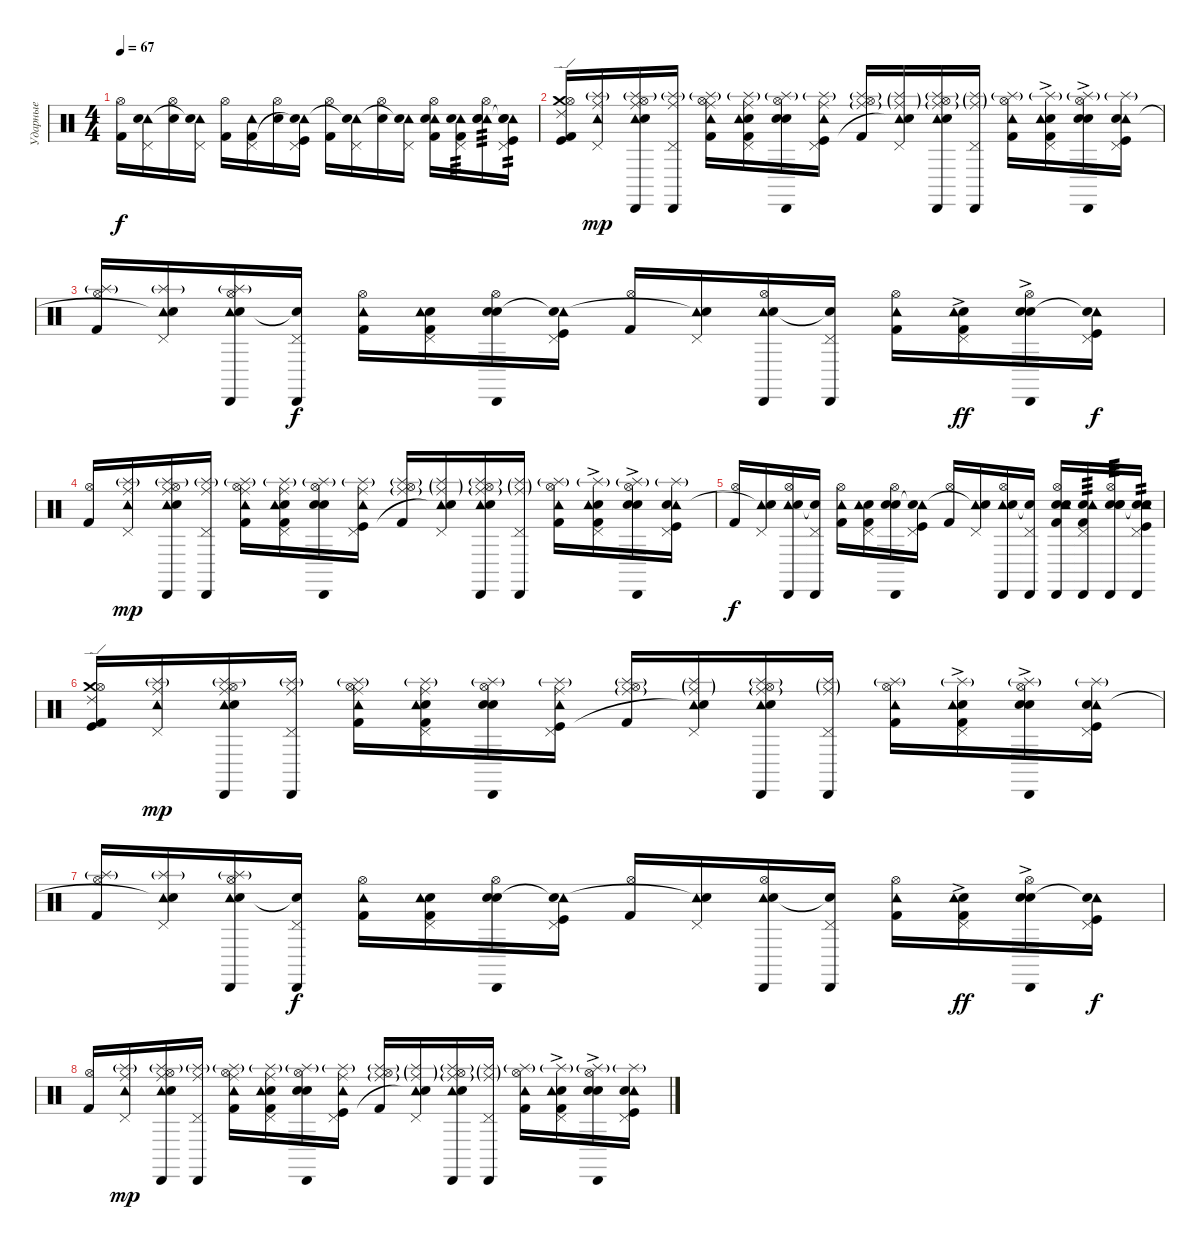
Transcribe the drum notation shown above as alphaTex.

\track ("Ударные" "Ударные") {instrument percussion}
\staff {score}
\articulation defaults
\ts (4 4)
\tempo 67
\clef neutral
\ks c
("Hi-Hat (open)" "Kick (hit) 2").16{dy f} ("Pedal Hi-Hat (hit)" "Tambourine (hit)" "Snare (hit)"{t}).16 ("Hi-Hat (open)" "Electric Snare (hit)").16 ("Pedal Hi-Hat (hit)" "Tambourine (hit)" "Snare (hit) 2"{t}).16 ("Hi-Hat (open)" "Kick (hit) 2").16 ("Pedal Hi-Hat (hit)" "Tambourine (hit)" "Kick (hit) 2").16 ("Hi-Hat (open)" "Snare (hit) 2").16 ("Pedal Hi-Hat (hit)" "Tambourine (hit)" "Snare (hit) 2"{t} "Kick (hit)").16 ("Hi-Hat (open)" "Kick (hit) 2").16 ("Pedal Hi-Hat (hit)" "Tambourine (hit)" "Snare (hit)"{t}).16 ("Hi-Hat (open)" "Electric Snare (hit)").16 ("Pedal Hi-Hat (hit)" "Tambourine (hit)" "Snare (hit) 2"{t}).16 ("Hi-Hat (open)" "Tambourine (hit)" "Snare (hit) 2" "Kick (hit) 2").16 ("Pedal Hi-Hat (hit)" "Tambourine (hit)" "Snare (hit) 2" "Kick (hit) 2").16{tp 3} ("Hi-Hat (open)" "Tambourine (hit)" "Snare (hit) 2" "Electric Snare (hit)").16{tp 3} ("Pedal Hi-Hat (hit)" "Tambourine (hit)" "Snare (hit) 2" "Snare (hit) 2"{t} "Kick (hit)").16{tp 2} |
("Crash medium (hit)" "Kick (hit) 2" "Kick (hit)" "Ride (edge) 2" "Hi-Hat (open)").16 ("Pedal Hi-Hat (hit)" "Tambourine (hit)" "Splash (hit)"{g} "Ride (middle)").16{dy mp} ("Hi-Hat (open)" "Cabasa (hit)" "Tambourine (hit)" "Splash (hit)"{g} "Snare (hit) 2" "Ride (middle)").16 ("Pedal Hi-Hat (hit)" "Cabasa (hit)" "Splash (hit)"{g} "Ride (middle)").16 ("Hi-Hat (open)" "Tambourine (hit)" "Splash (hit)"{g} "Ride (middle)" "Kick (hit) 2").16 ("Pedal Hi-Hat (hit)" "Ride (middle)" "Hand Clap (hit)" "Tambourine (hit)" "Splash (hit)"{g} "Kick (hit) 2").16 ("Hi-Hat (open)" "Cabasa (hit)" "Hand Clap (hit)" "Splash (hit)"{g} "Electric Snare (hit)").16 ("Pedal Hi-Hat (hit)" "Ride (middle)" "Tambourine (hit)" "Splash (hit)"{g} "Kick (hit)").16 ("Hi-Hat (open)" "Ride (middle)"{g} "Splash (hit)"{g} "Kick (hit) 2").16 ("Pedal Hi-Hat (hit)" "Ride (middle)"{g} "Tambourine (hit)" "Splash (hit)"{g} "Snare (hit)"{t}).16 ("Hi-Hat (open)" "Cabasa (hit)" "Splash (hit)"{g} "Tambourine (hit)" "Snare (hit) 2" "Ride (middle)"{g}).16 ("Pedal Hi-Hat (hit)" "Cabasa (hit)" "Splash (hit)"{g} "Ride (middle)"{g}).16 ("Hi-Hat (open)" "Tambourine (hit)" "Splash (hit)"{g} "Kick (hit) 2").16 ("Pedal Hi-Hat (hit)" "Hand Clap (hit)"{ac} "Tambourine (hit)" "Splash (hit)"{g} "Kick (hit) 2").16 ("Hi-Hat (open)" "Cabasa (hit)" "Hand Clap (hit)"{ac} "Splash (hit)"{g} "Electric Snare (hit)").16 ("Pedal Hi-Hat (hit)" "Splash (hit)"{g} "Tambourine (hit)" "Electric Snare (hit)" "Kick (hit)").16 |
("Hi-Hat (open)" "Splash (hit)"{g} "Kick (hit) 2").16 ("Pedal Hi-Hat (hit)" "Tambourine (hit)" "Splash (hit)"{g} "Snare (hit)"{t}).16 ("Hi-Hat (open)" "Cabasa (hit)" "Tambourine (hit)" "Snare (hit) 2" "Splash (hit)"{g}).16 ("Pedal Hi-Hat (hit)" "Cabasa (hit)" "Snare (hit) 2"{t}).16{dy f} ("Hi-Hat (open)" "Tambourine (hit)" "Kick (hit) 2").16 ("Pedal Hi-Hat (hit)" "Hand Clap (hit)" "Tambourine (hit)" "Kick (hit) 2").16 ("Hi-Hat (open)" "Cabasa (hit)" "Hand Clap (hit)" "Electric Snare (hit)").16 ("Pedal Hi-Hat (hit)" "Tambourine (hit)" "Snare (hit) 2"{t} "Kick (hit)").16 ("Hi-Hat (open)" "Kick (hit) 2").16 ("Pedal Hi-Hat (hit)" "Tambourine (hit)" "Snare (hit)"{t}).16 ("Hi-Hat (open)" "Cabasa (hit)" "Tambourine (hit)" "Snare (hit) 2").16 ("Pedal Hi-Hat (hit)" "Cabasa (hit)" "Snare (hit) 2"{t}).16 ("Hi-Hat (open)" "Tambourine (hit)" "Kick (hit) 2").16 ("Pedal Hi-Hat (hit)" "Hand Clap (hit)"{ac} "Tambourine (hit)" "Kick (hit) 2").16{dy ff} ("Hi-Hat (open)" "Cabasa (hit)" "Hand Clap (hit)"{ac} "Electric Snare (hit)").16 ("Pedal Hi-Hat (hit)" "Tambourine (hit)" "Snare (hit) 2"{t} "Kick (hit)").16{dy f} |
("Hi-Hat (open)" "Kick (hit) 2").16 ("Pedal Hi-Hat (hit)" "Tambourine (hit)" "Splash (hit)"{g} "Ride (middle)").16{dy mp} ("Hi-Hat (open)" "Cabasa (hit)" "Tambourine (hit)" "Splash (hit)"{g} "Snare (hit) 2" "Ride (middle)").16 ("Pedal Hi-Hat (hit)" "Cabasa (hit)" "Splash (hit)"{g} "Ride (middle)").16 ("Hi-Hat (open)" "Tambourine (hit)" "Splash (hit)"{g} "Ride (middle)" "Kick (hit) 2").16 ("Pedal Hi-Hat (hit)" "Ride (middle)" "Hand Clap (hit)" "Tambourine (hit)" "Splash (hit)"{g} "Kick (hit) 2").16 ("Hi-Hat (open)" "Cabasa (hit)" "Hand Clap (hit)" "Splash (hit)"{g} "Electric Snare (hit)").16 ("Pedal Hi-Hat (hit)" "Ride (middle)" "Tambourine (hit)" "Splash (hit)"{g} "Kick (hit)").16 ("Hi-Hat (open)" "Ride (middle)"{g} "Splash (hit)"{g} "Kick (hit) 2").16 ("Pedal Hi-Hat (hit)" "Ride (middle)"{g} "Tambourine (hit)" "Splash (hit)"{g} "Snare (hit)"{t}).16 ("Hi-Hat (open)" "Cabasa (hit)" "Splash (hit)"{g} "Tambourine (hit)" "Snare (hit) 2" "Ride (middle)"{g}).16 ("Pedal Hi-Hat (hit)" "Cabasa (hit)" "Splash (hit)"{g} "Ride (middle)"{g}).16 ("Hi-Hat (open)" "Tambourine (hit)" "Splash (hit)"{g} "Kick (hit) 2").16 ("Pedal Hi-Hat (hit)" "Hand Clap (hit)"{ac} "Tambourine (hit)" "Splash (hit)"{g} "Kick (hit) 2").16 ("Hi-Hat (open)" "Cabasa (hit)" "Hand Clap (hit)"{ac} "Splash (hit)"{g} "Electric Snare (hit)").16 ("Pedal Hi-Hat (hit)" "Splash (hit)"{g} "Tambourine (hit)" "Electric Snare (hit)" "Kick (hit)").16 |
("Hi-Hat (open)" "Kick (hit) 2").16{dy f} ("Pedal Hi-Hat (hit)" "Tambourine (hit)" "Snare (hit)"{t}).16 ("Hi-Hat (open)" "Cabasa (hit)" "Tambourine (hit)" "Snare (hit) 2").16 ("Pedal Hi-Hat (hit)" "Cabasa (hit)" "Snare (hit) 2"{t}).16 ("Hi-Hat (open)" "Tambourine (hit)" "Kick (hit) 2").16 ("Pedal Hi-Hat (hit)" "Hand Clap (hit)" "Tambourine (hit)" "Kick (hit) 2").16 ("Hi-Hat (open)" "Cabasa (hit)" "Hand Clap (hit)" "Electric Snare (hit)").16 ("Pedal Hi-Hat (hit)" "Tambourine (hit)" "Snare (hit) 2"{t} "Kick (hit)").16 ("Hi-Hat (open)" "Kick (hit) 2").16 ("Pedal Hi-Hat (hit)" "Tambourine (hit)" "Snare (hit)"{t}).16 ("Hi-Hat (open)" "Cabasa (hit)" "Tambourine (hit)" "Snare (hit) 2").16 ("Pedal Hi-Hat (hit)" "Cabasa (hit)" "Snare (hit) 2"{t}).16 ("Hi-Hat (open)" "Cabasa (hit)" "Snare (hit) 2" "Hand Clap (hit)" "Tambourine (hit)" "Kick (hit) 2").16 ("Pedal Hi-Hat (hit)" "Cabasa (hit)" "Snare (hit) 2" "Tambourine (hit)" "Kick (hit) 2").16{tp 3} ("Hi-Hat (open)" "Cabasa (hit)" "Snare (hit) 2" "Hand Clap (hit)" "Electric Snare (hit)").16{tp 3} ("Pedal Hi-Hat (hit)" "Cabasa (hit)" "Snare (hit) 2" "Snare (hit)"{t} "Tambourine (hit)" "Kick (hit)").16{tp 2} |
("Crash medium (hit)" "Kick (hit) 2" "Kick (hit)" "Ride (edge) 2" "Hi-Hat (open)").16 ("Pedal Hi-Hat (hit)" "Tambourine (hit)" "Splash (hit)"{g} "Ride (middle)").16{dy mp} ("Hi-Hat (open)" "Cabasa (hit)" "Tambourine (hit)" "Splash (hit)"{g} "Snare (hit) 2" "Ride (middle)").16 ("Pedal Hi-Hat (hit)" "Cabasa (hit)" "Splash (hit)"{g} "Ride (middle)").16 ("Hi-Hat (open)" "Tambourine (hit)" "Splash (hit)"{g} "Ride (middle)" "Kick (hit) 2").16 ("Pedal Hi-Hat (hit)" "Ride (middle)" "Hand Clap (hit)" "Tambourine (hit)" "Splash (hit)"{g} "Kick (hit) 2").16 ("Hi-Hat (open)" "Cabasa (hit)" "Hand Clap (hit)" "Splash (hit)"{g} "Electric Snare (hit)").16 ("Pedal Hi-Hat (hit)" "Ride (middle)" "Tambourine (hit)" "Splash (hit)"{g} "Kick (hit)").16 ("Hi-Hat (open)" "Ride (middle)"{g} "Splash (hit)"{g} "Kick (hit) 2").16 ("Pedal Hi-Hat (hit)" "Ride (middle)"{g} "Tambourine (hit)" "Splash (hit)"{g} "Snare (hit)"{t}).16 ("Hi-Hat (open)" "Cabasa (hit)" "Splash (hit)"{g} "Tambourine (hit)" "Snare (hit) 2" "Ride (middle)"{g}).16 ("Pedal Hi-Hat (hit)" "Cabasa (hit)" "Splash (hit)"{g} "Ride (middle)"{g}).16 ("Hi-Hat (open)" "Tambourine (hit)" "Splash (hit)"{g} "Kick (hit) 2").16 ("Pedal Hi-Hat (hit)" "Hand Clap (hit)"{ac} "Tambourine (hit)" "Splash (hit)"{g} "Kick (hit) 2").16 ("Hi-Hat (open)" "Cabasa (hit)" "Hand Clap (hit)"{ac} "Splash (hit)"{g} "Electric Snare (hit)").16 ("Pedal Hi-Hat (hit)" "Splash (hit)"{g} "Tambourine (hit)" "Electric Snare (hit)" "Kick (hit)").16 |
("Hi-Hat (open)" "Splash (hit)"{g} "Kick (hit) 2").16 ("Pedal Hi-Hat (hit)" "Tambourine (hit)" "Splash (hit)"{g} "Snare (hit)"{t}).16 ("Hi-Hat (open)" "Cabasa (hit)" "Tambourine (hit)" "Snare (hit) 2" "Splash (hit)"{g}).16 ("Pedal Hi-Hat (hit)" "Cabasa (hit)" "Snare (hit) 2"{t}).16{dy f} ("Hi-Hat (open)" "Tambourine (hit)" "Kick (hit) 2").16 ("Pedal Hi-Hat (hit)" "Hand Clap (hit)" "Tambourine (hit)" "Kick (hit) 2").16 ("Hi-Hat (open)" "Cabasa (hit)" "Hand Clap (hit)" "Electric Snare (hit)").16 ("Pedal Hi-Hat (hit)" "Tambourine (hit)" "Snare (hit) 2"{t} "Kick (hit)").16 ("Hi-Hat (open)" "Kick (hit) 2").16 ("Pedal Hi-Hat (hit)" "Tambourine (hit)" "Snare (hit)"{t}).16 ("Hi-Hat (open)" "Cabasa (hit)" "Tambourine (hit)" "Snare (hit) 2").16 ("Pedal Hi-Hat (hit)" "Cabasa (hit)" "Snare (hit) 2"{t}).16 ("Hi-Hat (open)" "Tambourine (hit)" "Kick (hit) 2").16 ("Pedal Hi-Hat (hit)" "Hand Clap (hit)"{ac} "Tambourine (hit)" "Kick (hit) 2").16{dy ff} ("Hi-Hat (open)" "Cabasa (hit)" "Hand Clap (hit)"{ac} "Electric Snare (hit)").16 ("Pedal Hi-Hat (hit)" "Tambourine (hit)" "Snare (hit) 2"{t} "Kick (hit)").16{dy f} |
("Hi-Hat (open)" "Kick (hit) 2").16 ("Pedal Hi-Hat (hit)" "Tambourine (hit)" "Splash (hit)"{g} "Ride (middle)").16{dy mp} ("Hi-Hat (open)" "Cabasa (hit)" "Tambourine (hit)" "Splash (hit)"{g} "Snare (hit) 2" "Ride (middle)").16 ("Pedal Hi-Hat (hit)" "Cabasa (hit)" "Splash (hit)"{g} "Ride (middle)").16 ("Hi-Hat (open)" "Tambourine (hit)" "Splash (hit)"{g} "Ride (middle)" "Kick (hit) 2").16 ("Pedal Hi-Hat (hit)" "Ride (middle)" "Hand Clap (hit)" "Tambourine (hit)" "Splash (hit)"{g} "Kick (hit) 2").16 ("Hi-Hat (open)" "Cabasa (hit)" "Hand Clap (hit)" "Splash (hit)"{g} "Electric Snare (hit)").16 ("Pedal Hi-Hat (hit)" "Ride (middle)" "Tambourine (hit)" "Splash (hit)"{g} "Kick (hit)").16 ("Hi-Hat (open)" "Ride (middle)"{g} "Splash (hit)"{g} "Kick (hit) 2").16 ("Pedal Hi-Hat (hit)" "Ride (middle)"{g} "Tambourine (hit)" "Splash (hit)"{g} "Snare (hit)"{t}).16 ("Hi-Hat (open)" "Cabasa (hit)" "Splash (hit)"{g} "Tambourine (hit)" "Snare (hit) 2" "Ride (middle)"{g}).16 ("Pedal Hi-Hat (hit)" "Cabasa (hit)" "Splash (hit)"{g} "Ride (middle)"{g}).16 ("Hi-Hat (open)" "Tambourine (hit)" "Splash (hit)"{g} "Kick (hit) 2").16 ("Pedal Hi-Hat (hit)" "Hand Clap (hit)"{ac} "Tambourine (hit)" "Splash (hit)"{g} "Kick (hit) 2").16 ("Hi-Hat (open)" "Cabasa (hit)" "Hand Clap (hit)"{ac} "Splash (hit)"{g} "Electric Snare (hit)").16 ("Pedal Hi-Hat (hit)" "Splash (hit)"{g} "Tambourine (hit)" "Electric Snare (hit)" "Kick (hit)").16
